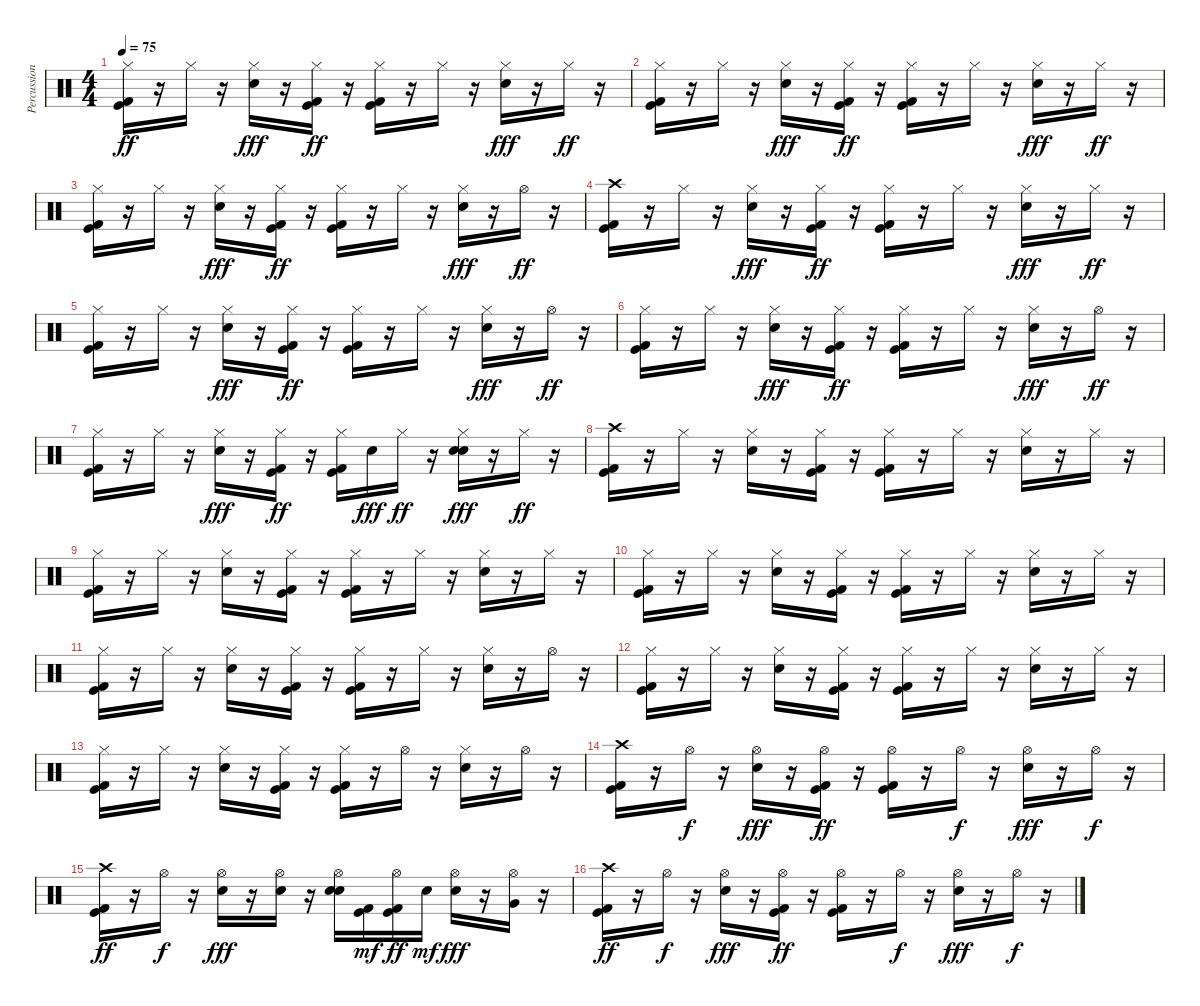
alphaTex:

\track ("Percussion" "Percussion") {instrument percussion}
\staff {score}
\articulation defaults
\ts (4 4)
\tempo 75
\clef neutral
\ks c
("Kick (hit)" "Kick (hit) 2" "Hi-Hat (closed)").16{dy ff} r.16 "Hi-Hat (closed)".16 r.16 ("Hi-Hat (closed)" "Electric Snare (hit)").16{dy fff} r.16 ("Kick (hit)" "Kick (hit) 2" "Hi-Hat (closed)").16{dy ff} r.16 ("Kick (hit)" "Kick (hit) 2" "Hi-Hat (closed)").16 r.16 "Hi-Hat (closed)".16 r.16 ("Hi-Hat (closed)" "Electric Snare (hit)").16{dy fff} r.16 "Hi-Hat (closed)".16{dy ff} r.16 |
("Kick (hit)" "Kick (hit) 2" "Hi-Hat (closed)").16 r.16 "Hi-Hat (closed)".16 r.16 ("Hi-Hat (closed)" "Electric Snare (hit)").16{dy fff} r.16 ("Kick (hit)" "Kick (hit) 2" "Hi-Hat (closed)").16{dy ff} r.16 ("Kick (hit)" "Kick (hit) 2" "Hi-Hat (closed)").16 r.16 "Hi-Hat (closed)".16 r.16 ("Hi-Hat (closed)" "Electric Snare (hit)").16{dy fff} r.16 "Hi-Hat (closed)".16{dy ff} r.16 |
("Kick (hit)" "Kick (hit) 2" "Hi-Hat (closed)").16 r.16 "Hi-Hat (closed)".16 r.16 ("Hi-Hat (closed)" "Electric Snare (hit)").16{dy fff} r.16 ("Kick (hit)" "Kick (hit) 2" "Hi-Hat (closed)").16{dy ff} r.16 ("Kick (hit)" "Kick (hit) 2" "Hi-Hat (closed)").16 r.16 "Hi-Hat (closed)".16 r.16 ("Hi-Hat (closed)" "Electric Snare (hit)").16{dy fff} r.16 "Hi-Hat (open)".16{dy ff} r.16 |
("Crash high (hit)" "Kick (hit)" "Kick (hit) 2").16 r.16 "Hi-Hat (closed)".16 r.16 ("Hi-Hat (closed)" "Electric Snare (hit)").16{dy fff} r.16 ("Kick (hit)" "Kick (hit) 2" "Hi-Hat (closed)").16{dy ff} r.16 ("Kick (hit)" "Kick (hit) 2" "Hi-Hat (closed)").16 r.16 "Hi-Hat (closed)".16 r.16 ("Hi-Hat (closed)" "Electric Snare (hit)").16{dy fff} r.16 "Hi-Hat (closed)".16{dy ff} r.16 |
("Kick (hit)" "Kick (hit) 2" "Hi-Hat (closed)").16 r.16 "Hi-Hat (closed)".16 r.16 ("Hi-Hat (closed)" "Electric Snare (hit)").16{dy fff} r.16 ("Kick (hit)" "Kick (hit) 2" "Hi-Hat (closed)").16{dy ff} r.16 ("Kick (hit)" "Kick (hit) 2" "Hi-Hat (closed)").16 r.16 "Hi-Hat (closed)".16 r.16 ("Hi-Hat (closed)" "Electric Snare (hit)").16{dy fff} r.16 "Hi-Hat (open)".16{dy ff} r.16 |
("Kick (hit)" "Kick (hit) 2" "Hi-Hat (closed)").16 r.16 "Hi-Hat (closed)".16 r.16 ("Hi-Hat (closed)" "Electric Snare (hit)").16{dy fff} r.16 ("Kick (hit)" "Kick (hit) 2" "Hi-Hat (closed)").16{dy ff} r.16 ("Kick (hit)" "Kick (hit) 2" "Hi-Hat (closed)").16 r.16 "Hi-Hat (closed)".16 r.16 ("Hi-Hat (closed)" "Electric Snare (hit)").16{dy fff} r.16 "Hi-Hat (open)".16{dy ff} r.16 |
("Kick (hit)" "Kick (hit) 2" "Hi-Hat (closed)").16 r.16 "Hi-Hat (closed)".16 r.16 ("Hi-Hat (closed)" "Electric Snare (hit)").16{dy fff} r.16 ("Kick (hit)" "Kick (hit) 2" "Hi-Hat (closed)").16{dy ff} r.16 ("Kick (hit)" "Kick (hit) 2" "Hi-Hat (closed)").16 "Electric Snare (hit)".16{dy fff} "Hi-Hat (closed)".16{dy ff} r.16 ("Electric Snare (hit)" "Hi-Hat (closed)" "Electric Snare (hit)").16{dy fff} r.16 "Hi-Hat (closed)".16{dy ff} r.16 |
("Crash high (hit)" "Kick (hit)" "Kick (hit) 2").16 r.16 "Hi-Hat (closed)".16 r.16 ("Electric Snare (hit)" "Hi-Hat (closed)").16 r.16 ("Kick (hit)" "Kick (hit) 2" "Hi-Hat (closed)").16 r.16 ("Kick (hit)" "Kick (hit) 2" "Hi-Hat (closed)").16 r.16 "Hi-Hat (closed)".16 r.16 ("Electric Snare (hit)" "Hi-Hat (closed)").16 r.16 "Hi-Hat (closed)".16 r.16 |
("Kick (hit) 2" "Kick (hit)" "Hi-Hat (closed)").16 r.16 "Hi-Hat (closed)".16 r.16 ("Electric Snare (hit)" "Hi-Hat (closed)").16 r.16 ("Kick (hit) 2" "Kick (hit)" "Hi-Hat (closed)").16 r.16 ("Kick (hit) 2" "Kick (hit)" "Hi-Hat (closed)").16 r.16 "Hi-Hat (closed)".16 r.16 ("Electric Snare (hit)" "Hi-Hat (closed)").16 r.16 "Hi-Hat (closed)".16 r.16 |
("Kick (hit)" "Kick (hit) 2" "Hi-Hat (closed)").16 r.16 "Hi-Hat (closed)".16 r.16 ("Electric Snare (hit)" "Hi-Hat (closed)").16 r.16 ("Kick (hit)" "Kick (hit) 2" "Hi-Hat (closed)").16 r.16 ("Kick (hit)" "Kick (hit) 2" "Hi-Hat (closed)").16 r.16 "Hi-Hat (closed)".16 r.16 ("Electric Snare (hit)" "Hi-Hat (closed)").16 r.16 "Hi-Hat (closed)".16 r.16 |
("Kick (hit) 2" "Kick (hit)" "Hi-Hat (closed)").16 r.16 "Hi-Hat (closed)".16 r.16 ("Electric Snare (hit)" "Hi-Hat (closed)").16 r.16 ("Kick (hit) 2" "Kick (hit)" "Hi-Hat (closed)").16 r.16 ("Kick (hit) 2" "Kick (hit)" "Hi-Hat (closed)").16 r.16 "Hi-Hat (closed)".16 r.16 ("Electric Snare (hit)" "Hi-Hat (closed)").16 r.16 "Hi-Hat (open)".16 r.16 |
("Kick (hit)" "Kick (hit) 2" "Hi-Hat (closed)").16 r.16 "Hi-Hat (closed)".16 r.16 ("Electric Snare (hit)" "Hi-Hat (closed)").16 r.16 ("Kick (hit)" "Kick (hit) 2" "Hi-Hat (closed)").16 r.16 ("Kick (hit)" "Kick (hit) 2" "Hi-Hat (closed)").16 r.16 "Hi-Hat (closed)".16 r.16 ("Electric Snare (hit)" "Hi-Hat (closed)").16 r.16 "Hi-Hat (closed)".16 r.16 |
("Kick (hit) 2" "Kick (hit)" "Hi-Hat (closed)").16 r.16 "Hi-Hat (closed)".16 r.16 ("Electric Snare (hit)" "Hi-Hat (closed)").16 r.16 ("Kick (hit) 2" "Kick (hit)" "Hi-Hat (closed)").16 r.16 ("Kick (hit) 2" "Kick (hit)" "Hi-Hat (closed)").16 r.16 "Hi-Hat (open)".16 r.16 ("Electric Snare (hit)" "Hi-Hat (closed)").16 r.16 "Hi-Hat (open)".16 r.16 |
("Crash high (hit)" "Kick (hit)" "Kick (hit) 2").16 r.16 "Hi-Hat (open)".16{dy f} r.16 ("Electric Snare (hit)" "Hi-Hat (open)").16{dy fff} r.16 ("Kick (hit)" "Kick (hit) 2" "Hi-Hat (open)").16{dy ff} r.16 ("Kick (hit)" "Kick (hit) 2" "Hi-Hat (open)").16 r.16 "Hi-Hat (open)".16{dy f} r.16 ("Electric Snare (hit)" "Hi-Hat (open)").16{dy fff} r.16 "Hi-Hat (open)".16{dy f} r.16 |
("Kick (hit) 2" "Kick (hit)" "Crash high (hit)").16{dy ff} r.16 "Hi-Hat (open)".16{dy f} r.16 ("Electric Snare (hit)" "Hi-Hat (open)").16{dy fff} r.16 ("Hi-Hat (open)" "Electric Snare (hit)").16 r.16 ("Hi-Hat (open)" "Electric Snare (hit)" "Electric Snare (hit)").16 ("Kick (hit)" "Kick (hit) 2").16{dy mf} ("Kick (hit)" "Kick (hit) 2" "Hi-Hat (open)").16{dy ff} "Electric Snare (hit)".16{dy mf} ("Electric Snare (hit)" "Hi-Hat (open)").16{dy fff} r.16 ("Hi-Hat (open)" "Very Low Tom (hit)").16 r.16 |
("Kick (hit)" "Kick (hit) 2" "Crash high (hit)").16{dy ff} r.16 "Hi-Hat (open)".16{dy f} r.16 ("Electric Snare (hit)" "Hi-Hat (open)").16{dy fff} r.16 ("Kick (hit)" "Kick (hit) 2" "Hi-Hat (open)").16{dy ff} r.16 ("Kick (hit)" "Kick (hit) 2" "Hi-Hat (open)").16 r.16 "Hi-Hat (open)".16{dy f} r.16 ("Electric Snare (hit)" "Hi-Hat (open)").16{dy fff} r.16 "Hi-Hat (open)".16{dy f} r.16
